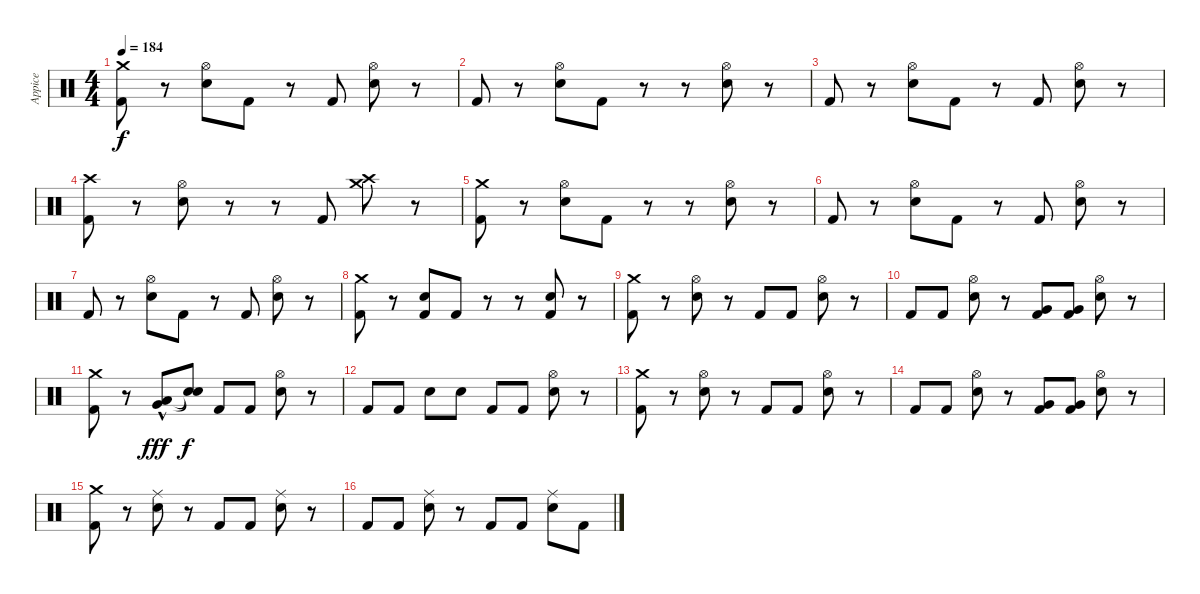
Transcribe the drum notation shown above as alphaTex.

\track ("Appice" "Appice") {instrument percussion}
\staff {score}
\articulation defaults
\ts (4 4)
\tempo 184
\clef neutral
\ks c
("Crash medium (hit)" "Kick (hit) 2").8{dy f} r.8 ("Hi-Hat (open)" "Snare (hit) 2").8 "Kick (hit) 2".8 r.8 "Kick (hit) 2".8 ("Hi-Hat (open)" "Snare (hit) 2").8 r.8 |
"Kick (hit) 2".8 r.8 ("Hi-Hat (open)" "Snare (hit) 2").8 "Kick (hit) 2".8 r.8 r.8 ("Hi-Hat (open)" "Snare (hit) 2").8 r.8 |
"Kick (hit) 2".8 r.8 ("Hi-Hat (open)" "Snare (hit) 2").8 "Kick (hit) 2".8 r.8 "Kick (hit) 2".8 ("Hi-Hat (open)" "Snare (hit) 2").8 r.8 |
("Crash high (hit)" "Kick (hit) 2").8 r.8 ("Hi-Hat (open)" "Snare (hit) 2").8 r.8 r.8 "Kick (hit) 2".8 ("Crash medium (hit)" "Crash high (hit)").8 r.8 |
("Crash medium (hit)" "Kick (hit) 2").8 r.8 ("Hi-Hat (open)" "Snare (hit) 2").8 "Kick (hit) 2".8 r.8 r.8 ("Hi-Hat (open)" "Snare (hit) 2").8 r.8 |
"Kick (hit) 2".8 r.8 ("Hi-Hat (open)" "Snare (hit) 2").8 "Kick (hit) 2".8 r.8 "Kick (hit) 2".8 ("Hi-Hat (open)" "Snare (hit) 2").8 r.8 |
"Kick (hit) 2".8 r.8 ("Hi-Hat (open)" "Snare (hit) 2").8 "Kick (hit) 2".8 r.8 "Kick (hit) 2".8 ("Hi-Hat (open)" "Snare (hit) 2").8 r.8 |
("Crash medium (hit)" "Kick (hit) 2").8 r.8 ("Kick (hit) 2" "Snare (hit) 2").8 "Kick (hit) 2".8 r.8 r.8 ("Kick (hit) 2" "Snare (hit) 2").8 r.8 |
("Crash medium (hit)" "Kick (hit) 2").8 r.8 ("Hi-Hat (open)" "Snare (hit) 2").8 r.8 "Kick (hit) 2".8 "Kick (hit) 2".8 ("Hi-Hat (open)" "Snare (hit) 2").8 r.8 |
"Kick (hit) 2".8 "Kick (hit) 2".8 ("Hi-Hat (open)" "Snare (hit) 2").8 r.8 ("Very Low Tom (hit)" "Kick (hit) 2").8 ("Very Low Tom (hit)" "Kick (hit) 2").8 ("Hi-Hat (open)" "Snare (hit) 2").8 r.8 |
("Crash medium (hit)" "Kick (hit) 2").8 r.8 ("Low Floor Tom (hit)"{hac} "Very Low Tom (hit)"{hac}).8{dy fff} ("Snare (hit)"{t} "Snare (hit)"{t}).8{dy f} "Kick (hit) 2".8 "Kick (hit) 2".8 ("Hi-Hat (open)" "Snare (hit) 2").8 r.8 |
"Kick (hit) 2".8 "Kick (hit) 2".8 "Snare (hit) 2".8 "Snare (hit) 2".8 "Kick (hit) 2".8 "Kick (hit) 2".8 ("Hi-Hat (open)" "Snare (hit) 2").8 r.8 |
("Crash medium (hit)" "Kick (hit) 2").8 r.8 ("Hi-Hat (open)" "Snare (hit) 2").8 r.8 "Kick (hit) 2".8 "Kick (hit) 2".8 ("Hi-Hat (open)" "Snare (hit) 2").8 r.8 |
"Kick (hit) 2".8 "Kick (hit) 2".8 ("Hi-Hat (open)" "Snare (hit) 2").8 r.8 ("Very Low Tom (hit)" "Kick (hit) 2").8 ("Very Low Tom (hit)" "Kick (hit) 2").8 ("Hi-Hat (open)" "Snare (hit) 2").8 r.8 |
("Crash medium (hit)" "Kick (hit) 2").8 r.8 ("Ride (middle)" "Snare (hit) 2").8 r.8 "Kick (hit) 2".8 "Kick (hit) 2".8 ("Ride (middle)" "Snare (hit) 2").8 r.8 |
"Kick (hit) 2".8 "Kick (hit) 2".8 ("Ride (middle)" "Snare (hit) 2").8 r.8 "Kick (hit) 2".8 "Kick (hit) 2".8 ("Ride (middle)" "Snare (hit) 2").8 "Kick (hit) 2".8
